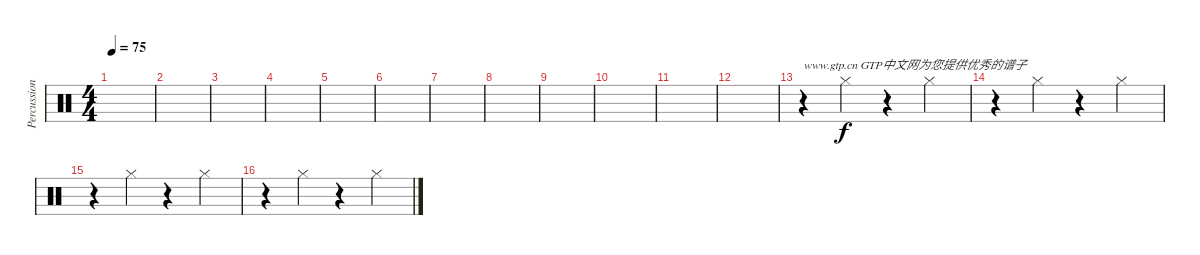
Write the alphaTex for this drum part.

\track ("Percussion" "Percussion") {instrument percussion}
\staff {score}
\articulation defaults
\ts (4 4)
\tempo 75
\clef neutral
\ks c
|
|
|
|
|
|
|
|
|
|
|
|
r.4{txt "www.gtp.cn GTP中文网为您提供优秀的谱子"} "Hi-Hat (closed)".4 r.4 "Hi-Hat (closed)".4 |
r.4 "Hi-Hat (closed)".4 r.4 "Hi-Hat (closed)".4 |
r.4 "Hi-Hat (closed)".4 r.4 "Hi-Hat (closed)".4 |
r.4 "Hi-Hat (closed)".4 r.4 "Hi-Hat (closed)".4
